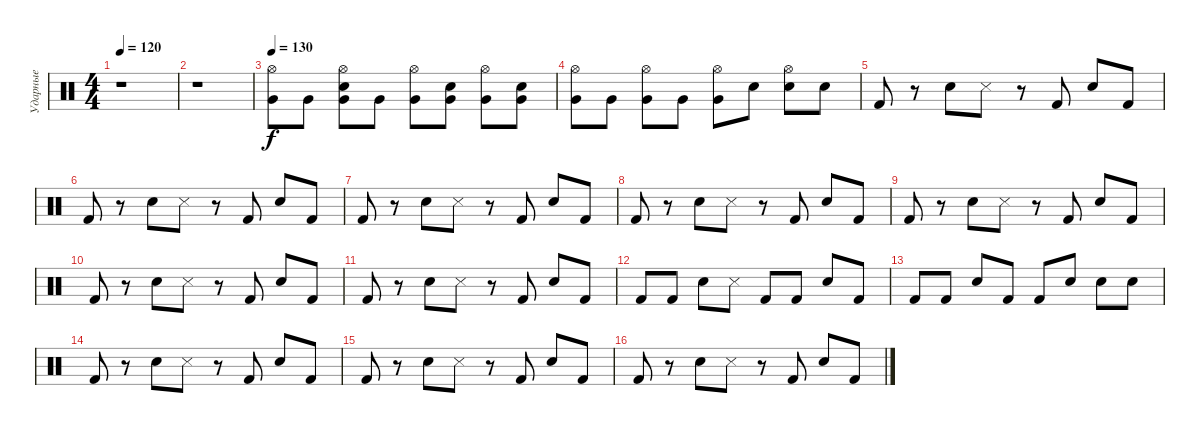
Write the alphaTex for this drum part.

\track ("Ударные" "Ударные") {instrument percussion}
\staff {score}
\articulation defaults
\ts (4 4)
\tempo 120
\clef neutral
\ks c
r.1{dy f} |
r.1 |
\tempo 130
("Hi-Hat (open)" "Very Low Tom (hit)").8 "Very Low Tom (hit)".8 ("Very Low Tom (hit)" "Electric Snare (hit)" "Hi-Hat (open)").8 "Very Low Tom (hit)".8 ("Very Low Tom (hit)" "Hi-Hat (open)").8 ("Very Low Tom (hit)" "Electric Snare (hit)").8 ("Hi-Hat (open)" "Very Low Tom (hit)").8 ("Very Low Tom (hit)" "Electric Snare (hit)").8 |
("Hi-Hat (open)" "Very Low Tom (hit)").8 "Very Low Tom (hit)".8 ("Hi-Hat (open)" "Very Low Tom (hit)").8 "Very Low Tom (hit)".8 ("Hi-Hat (open)" "Very Low Tom (hit)").8 "Electric Snare (hit)".8 ("Electric Snare (hit)" "Hi-Hat (open)").8 "Electric Snare (hit)".8 |
"Kick (hit) 2".8 r.8 "Electric Snare (hit)".8 "Snare (side stick) 3".8 r.8 "Kick (hit) 2".8 "Electric Snare (hit)".8 "Kick (hit) 2".8 |
"Kick (hit) 2".8 r.8 "Electric Snare (hit)".8 "Snare (side stick) 3".8 r.8 "Kick (hit) 2".8 "Electric Snare (hit)".8 "Kick (hit) 2".8 |
"Kick (hit) 2".8 r.8 "Electric Snare (hit)".8 "Snare (side stick) 3".8 r.8 "Kick (hit) 2".8 "Electric Snare (hit)".8 "Kick (hit) 2".8 |
"Kick (hit) 2".8 r.8 "Electric Snare (hit)".8 "Snare (side stick) 3".8 r.8 "Kick (hit) 2".8 "Electric Snare (hit)".8 "Kick (hit) 2".8 |
"Kick (hit) 2".8 r.8 "Electric Snare (hit)".8 "Snare (side stick) 3".8 r.8 "Kick (hit) 2".8 "Electric Snare (hit)".8 "Kick (hit) 2".8 |
"Kick (hit) 2".8 r.8 "Electric Snare (hit)".8 "Snare (side stick) 3".8 r.8 "Kick (hit) 2".8 "Electric Snare (hit)".8 "Kick (hit) 2".8 |
"Kick (hit) 2".8 r.8 "Electric Snare (hit)".8 "Snare (side stick) 3".8 r.8 "Kick (hit) 2".8 "Electric Snare (hit)".8 "Kick (hit) 2".8 |
"Kick (hit) 2".8 "Kick (hit) 2".8 "Electric Snare (hit)".8 "Snare (side stick) 3".8 "Kick (hit) 2".8 "Kick (hit) 2".8 "Electric Snare (hit)".8 "Kick (hit) 2".8 |
"Kick (hit) 2".8 "Kick (hit) 2".8 "Electric Snare (hit)".8 "Kick (hit) 2".8 "Kick (hit) 2".8 "Electric Snare (hit)".8 "Electric Snare (hit)".8 "Electric Snare (hit)".8 |
"Kick (hit) 2".8 r.8 "Electric Snare (hit)".8 "Snare (side stick) 3".8 r.8 "Kick (hit) 2".8 "Electric Snare (hit)".8 "Kick (hit) 2".8 |
"Kick (hit) 2".8 r.8 "Electric Snare (hit)".8 "Snare (side stick) 3".8 r.8 "Kick (hit) 2".8 "Electric Snare (hit)".8 "Kick (hit) 2".8 |
"Kick (hit) 2".8 r.8 "Electric Snare (hit)".8 "Snare (side stick) 3".8 r.8 "Kick (hit) 2".8 "Electric Snare (hit)".8 "Kick (hit) 2".8
